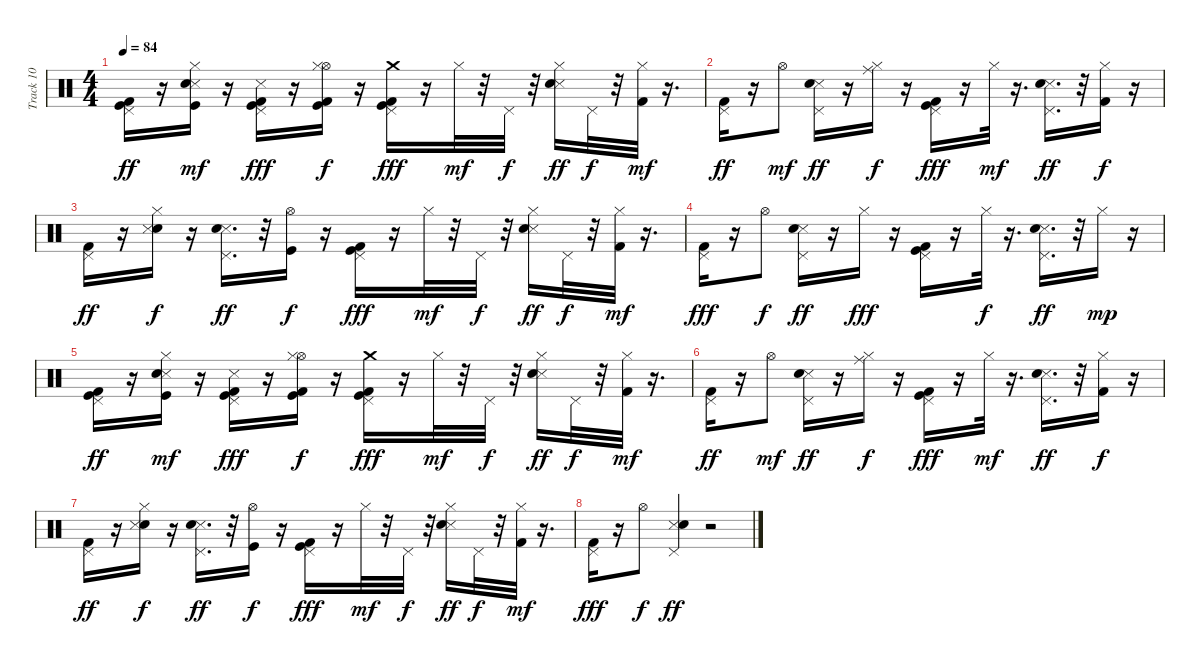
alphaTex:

\track ("Track 10" "Track 10") {instrument percussion}
\staff {score}
\articulation defaults
\ts (4 4)
\tempo 84
\clef neutral
\ks c
("Kick (hit)" "Kick (hit) 2" "Pedal Hi-Hat (hit)").16{dy ff} r.16 ("Snare (side stick) 3" "Kick (hit)" "Snare (hit) 2" "Hi-Hat (closed)").16{dy mf} r.16 ("Kick (hit)" "Kick (hit) 2" "Snare (side stick) 3" "Pedal Hi-Hat (hit)").16{dy fff} r.16 ("Kick (hit)" "Kick (hit) 2" "Hi-Hat (open)" "Hi-Hat (closed)").16{dy f} r.16 ("Pedal Hi-Hat (hit)" "Kick (hit) 2" "Kick (hit)" "Crash medium (hit)").16{dy fff} r.16 "Hi-Hat (closed)".32{dy mf} r.32 "Pedal Hi-Hat (hit)".32{dy f} r.32 ("Snare (side stick) 3" "Snare (hit) 2" "Hi-Hat (closed)").16{dy ff} "Pedal Hi-Hat (hit)".32{dy f} r.32 ("Kick (hit) 2" "Hi-Hat (closed)").32{dy mf} r.16{d} |
("Kick (hit) 2" "Pedal Hi-Hat (hit)").16{dy ff} r.16 "Hi-Hat (open)".8{dy mf} ("Pedal Hi-Hat (hit)" "Snare (side stick) 3" "Snare (hit) 2").16{dy ff} r.16 ("Hi-Hat (closed)" "Ride (middle)").16{dy f} r.16 ("Kick (hit)" "Kick (hit) 2" "Pedal Hi-Hat (hit)").16{dy fff} r.16 "Hi-Hat (closed)".32{dy mf} r.16{d} ("Snare (side stick) 3" "Snare (hit) 2" "Pedal Hi-Hat (hit)").16{d dy ff} r.32 ("Kick (hit) 2" "Hi-Hat (closed)").16{dy f} r.16 |
("Pedal Hi-Hat (hit)" "Kick (hit) 2").16{dy ff} r.16 ("Snare (hit) 2" "Snare (side stick) 3" "Hi-Hat (closed)").16{dy f} r.16 ("Snare (side stick) 3" "Snare (hit) 2" "Pedal Hi-Hat (hit)").16{d dy ff} r.32 ("Hi-Hat (open)" "Kick (hit)").16{dy f} r.16 ("Kick (hit) 2" "Kick (hit)" "Pedal Hi-Hat (hit)").16{dy fff} r.16 "Hi-Hat (closed)".32{dy mf} r.32 "Pedal Hi-Hat (hit)".32{dy f} r.32 ("Snare (side stick) 3" "Snare (hit) 2" "Hi-Hat (closed)").16{dy ff} "Pedal Hi-Hat (hit)".32{dy f} r.32 ("Kick (hit) 2" "Hi-Hat (closed)").32{dy mf} r.16{d} |
("Kick (hit) 2" "Pedal Hi-Hat (hit)").16{dy fff} r.16 "Hi-Hat (open)".8{dy f} ("Snare (side stick) 3" "Snare (hit) 2" "Pedal Hi-Hat (hit)").16{dy ff} r.16 "Hi-Hat (closed)".16{dy fff} r.16 ("Kick (hit)" "Kick (hit) 2" "Pedal Hi-Hat (hit)").16 r.16 "Hi-Hat (closed)".32{dy f} r.16{d} ("Pedal Hi-Hat (hit)" "Snare (side stick) 3" "Snare (hit) 2").16{d dy ff} r.32 "Hi-Hat (closed)".16{dy mp} r.16 |
("Kick (hit)" "Kick (hit) 2" "Pedal Hi-Hat (hit)").16{dy ff} r.16 ("Snare (side stick) 3" "Kick (hit)" "Snare (hit) 2" "Hi-Hat (closed)").16{dy mf} r.16 ("Kick (hit)" "Kick (hit) 2" "Snare (side stick) 3" "Pedal Hi-Hat (hit)").16{dy fff} r.16 ("Kick (hit)" "Kick (hit) 2" "Hi-Hat (open)" "Hi-Hat (closed)").16{dy f} r.16 ("Pedal Hi-Hat (hit)" "Kick (hit) 2" "Kick (hit)" "Crash medium (hit)").16{dy fff} r.16 "Hi-Hat (closed)".32{dy mf} r.32 "Pedal Hi-Hat (hit)".32{dy f} r.32 ("Snare (side stick) 3" "Snare (hit) 2" "Hi-Hat (closed)").16{dy ff} "Pedal Hi-Hat (hit)".32{dy f} r.32 ("Kick (hit) 2" "Hi-Hat (closed)").32{dy mf} r.16{d} |
("Kick (hit) 2" "Pedal Hi-Hat (hit)").16{dy ff} r.16 "Hi-Hat (open)".8{dy mf} ("Pedal Hi-Hat (hit)" "Snare (side stick) 3" "Snare (hit) 2").16{dy ff} r.16 ("Hi-Hat (closed)" "Ride (middle)").16{dy f} r.16 ("Kick (hit)" "Kick (hit) 2" "Pedal Hi-Hat (hit)").16{dy fff} r.16 "Hi-Hat (closed)".32{dy mf} r.16{d} ("Snare (side stick) 3" "Snare (hit) 2" "Pedal Hi-Hat (hit)").16{d dy ff} r.32 ("Kick (hit) 2" "Hi-Hat (closed)").16{dy f} r.16 |
("Pedal Hi-Hat (hit)" "Kick (hit) 2").16{dy ff} r.16 ("Snare (hit) 2" "Snare (side stick) 3" "Hi-Hat (closed)").16{dy f} r.16 ("Snare (side stick) 3" "Snare (hit) 2" "Pedal Hi-Hat (hit)").16{d dy ff} r.32 ("Hi-Hat (open)" "Kick (hit)").16{dy f} r.16 ("Kick (hit) 2" "Kick (hit)" "Pedal Hi-Hat (hit)").16{dy fff} r.16 "Hi-Hat (closed)".32{dy mf} r.32 "Pedal Hi-Hat (hit)".32{dy f} r.32 ("Snare (side stick) 3" "Snare (hit) 2" "Hi-Hat (closed)").16{dy ff} "Pedal Hi-Hat (hit)".32{dy f} r.32 ("Kick (hit) 2" "Hi-Hat (closed)").32{dy mf} r.16{d} |
("Kick (hit) 2" "Pedal Hi-Hat (hit)").16{dy fff} r.16 "Hi-Hat (open)".8{dy f} ("Snare (side stick) 3" "Snare (hit) 2" "Pedal Hi-Hat (hit)").4{dy ff} r.2
